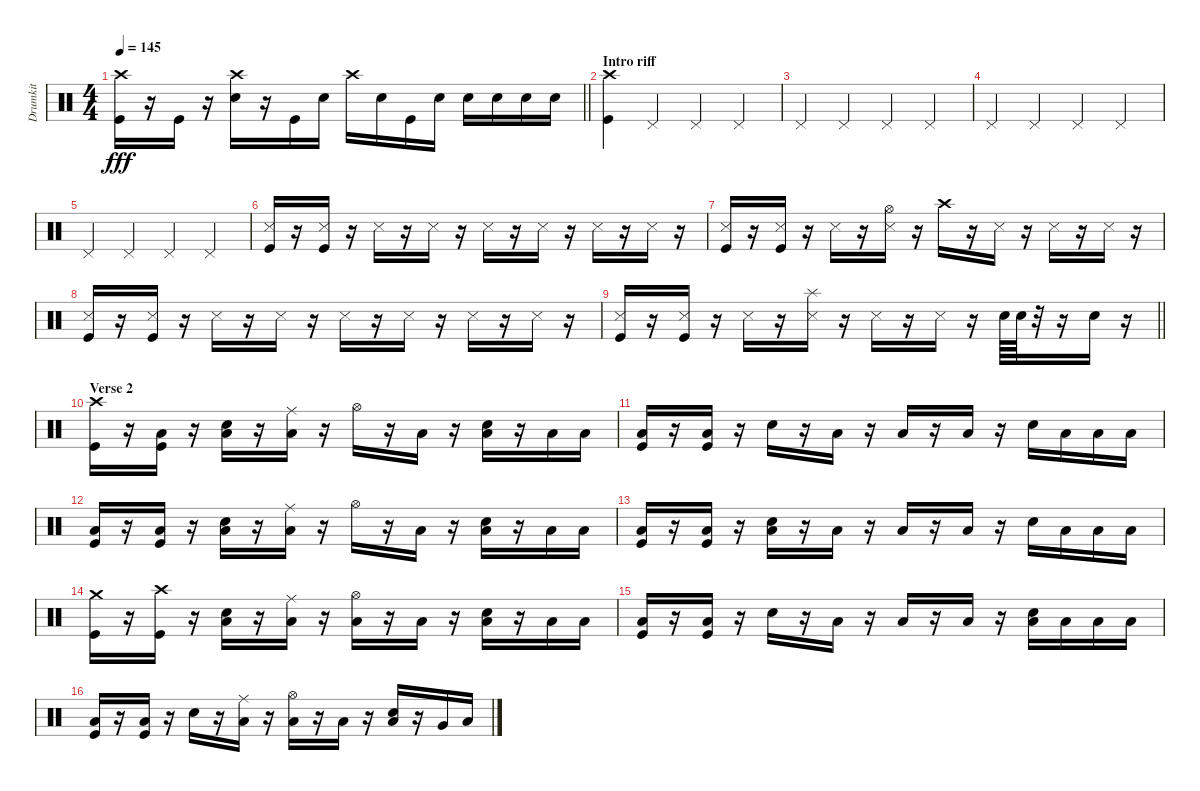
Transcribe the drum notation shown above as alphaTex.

\track ("Drumkit" "Drumkit") {instrument percussion}
\staff {score}
\articulation defaults
\ts (4 4)
\tempo 145
\clef neutral
\barLineRight lightlight
\ks c
("Crash high (hit)" "Kick (hit)").16{dy fff} r.16 "Kick (hit)".16 r.16 ("Crash high (hit)" "Snare (hit) 2").16 r.16 "Kick (hit)".16 "Snare (hit) 2".16 "Crash high (hit)".16 "Snare (hit) 2".16 "Kick (hit)".16 "Snare (hit) 2".16 "Snare (hit) 2".16 "Snare (hit) 2".16 "Snare (hit) 2".16 "Snare (hit) 2".16 |
\section ("" "Intro riff")
("Crash high (hit)" "Kick (hit)").4 "Pedal Hi-Hat (hit)".4 "Pedal Hi-Hat (hit)".4 "Pedal Hi-Hat (hit)".4 |
"Pedal Hi-Hat (hit)".4 "Pedal Hi-Hat (hit)".4 "Pedal Hi-Hat (hit)".4 "Pedal Hi-Hat (hit)".4 |
"Pedal Hi-Hat (hit)".4 "Pedal Hi-Hat (hit)".4 "Pedal Hi-Hat (hit)".4 "Pedal Hi-Hat (hit)".4 |
"Pedal Hi-Hat (hit)".4 "Pedal Hi-Hat (hit)".4 "Pedal Hi-Hat (hit)".4 "Pedal Hi-Hat (hit)".4 |
("Snare (side stick) 3" "Kick (hit)").16 r.16 ("Snare (side stick) 3" "Kick (hit)").16 r.16 "Snare (side stick) 3".16 r.16 "Snare (side stick) 3".16 r.16 "Snare (side stick) 3".16 r.16 "Snare (side stick) 3".16 r.16 "Snare (side stick) 3".16 r.16 "Snare (side stick) 3".16 r.16 |
("Snare (side stick) 3" "Kick (hit)").16 r.16 ("Snare (side stick) 3" "Kick (hit)").16 r.16 "Snare (side stick) 3".16 r.16 ("Hi-Hat (open)" "Snare (side stick) 3").16 r.16 "Crash high (hit)".16 r.16 "Snare (side stick) 3".16 r.16 "Snare (side stick) 3".16 r.16 "Snare (side stick) 3".16 r.16 |
("Snare (side stick) 3" "Kick (hit)").16 r.16 ("Snare (side stick) 3" "Kick (hit)").16 r.16 "Snare (side stick) 3".16 r.16 "Snare (side stick) 3".16 r.16 "Snare (side stick) 3".16 r.16 "Snare (side stick) 3".16 r.16 "Snare (side stick) 3".16 r.16 "Snare (side stick) 3".16 r.16 |
\barLineRight lightlight
("Snare (side stick) 3" "Kick (hit)").16 r.16 ("Snare (side stick) 3" "Kick (hit)").16 r.16 "Snare (side stick) 3".16 r.16 ("Splash (hit)" "Snare (side stick) 3").16 r.16 "Snare (side stick) 3".16 r.16 "Snare (side stick) 3".16 r.16 "Snare (hit) 2".64 "Snare (hit) 2".64 r.32 r.16 "Snare (hit) 2".16 r.16 |
\section ("" "Verse 2")
("Crash high (hit)" "Kick (hit)").16 r.16 ("Low Floor Tom (hit)" "Kick (hit)").16 r.16 ("Low Floor Tom (hit)" "Snare (hit) 2").16 r.16 ("Ride (middle)" "Low Floor Tom (hit)").16 r.16 "Hi-Hat (open)".16 r.16 "Low Floor Tom (hit)".16 r.16 ("Snare (hit) 2" "Low Floor Tom (hit)").16 r.16 "Low Floor Tom (hit)".16 "Low Floor Tom (hit)".16 |
("Low Floor Tom (hit)" "Kick (hit)").16 r.16 ("Low Floor Tom (hit)" "Kick (hit)").16 r.16 "Snare (hit) 2".16 r.16 "Low Tom (hit)".16 r.16 "Low Tom (hit)".16 r.16 "Low Floor Tom (hit)".16 r.16 "Snare (hit) 2".16 "Low Tom (hit)".16 "Low Floor Tom (hit)".16 "Low Floor Tom (hit)".16 |
("Low Floor Tom (hit)" "Kick (hit)").16 r.16 ("Low Floor Tom (hit)" "Kick (hit)").16 r.16 ("Low Floor Tom (hit)" "Snare (hit) 2").16 r.16 ("Ride (middle)" "Low Floor Tom (hit)").16 r.16 "Hi-Hat (open)".16 r.16 "Low Floor Tom (hit)".16 r.16 ("Snare (hit) 2" "Low Floor Tom (hit)").16 r.16 "Low Floor Tom (hit)".16 "Low Floor Tom (hit)".16 |
("Low Floor Tom (hit)" "Kick (hit)").16 r.16 ("Low Floor Tom (hit)" "Kick (hit)").16 r.16 ("Snare (hit) 2" "Low Floor Tom (hit)").16 r.16 "Low Floor Tom (hit)".16 r.16 "Low Floor Tom (hit)".16 r.16 "Low Floor Tom (hit)".16 r.16 "Snare (hit) 2".16 "Low Tom (hit)".16 "Low Floor Tom (hit)".16 "Low Floor Tom (hit)".16 |
("Crash medium (hit)" "Kick (hit)").16 r.16 ("Crash high (hit)" "Kick (hit)").16 r.16 ("Low Floor Tom (hit)" "Snare (hit) 2").16 r.16 ("Ride (middle)" "Low Floor Tom (hit)").16 r.16 ("Hi-Hat (open)" "Low Floor Tom (hit)").16 r.16 "Low Floor Tom (hit)".16 r.16 ("Snare (hit) 2" "Low Floor Tom (hit)").16 r.16 "Low Floor Tom (hit)".16 "Low Floor Tom (hit)".16 |
("Low Floor Tom (hit)" "Kick (hit)").16 r.16 ("Low Floor Tom (hit)" "Kick (hit)").16 r.16 "Snare (hit) 2".16 r.16 "Low Tom (hit)".16 r.16 "Low Tom (hit)".16 r.16 "Low Floor Tom (hit)".16 r.16 ("Snare (hit) 2" "Low Floor Tom (hit)").16 "Low Tom (hit)".16 "Low Floor Tom (hit)".16 "Low Floor Tom (hit)".16 |
("Low Floor Tom (hit)" "Kick (hit)").16 r.16 ("Low Floor Tom (hit)" "Kick (hit)").16 r.16 "Snare (hit) 2".16 r.16 ("Ride (middle)" "Low Floor Tom (hit)").16 r.16 ("Hi-Hat (open)" "Low Floor Tom (hit)").16 r.16 "Low Floor Tom (hit)".16 r.16 ("Snare (hit) 2" "Low Floor Tom (hit)").16 r.16 "Very Low Tom (hit)".16 "Low Floor Tom (hit)".16
